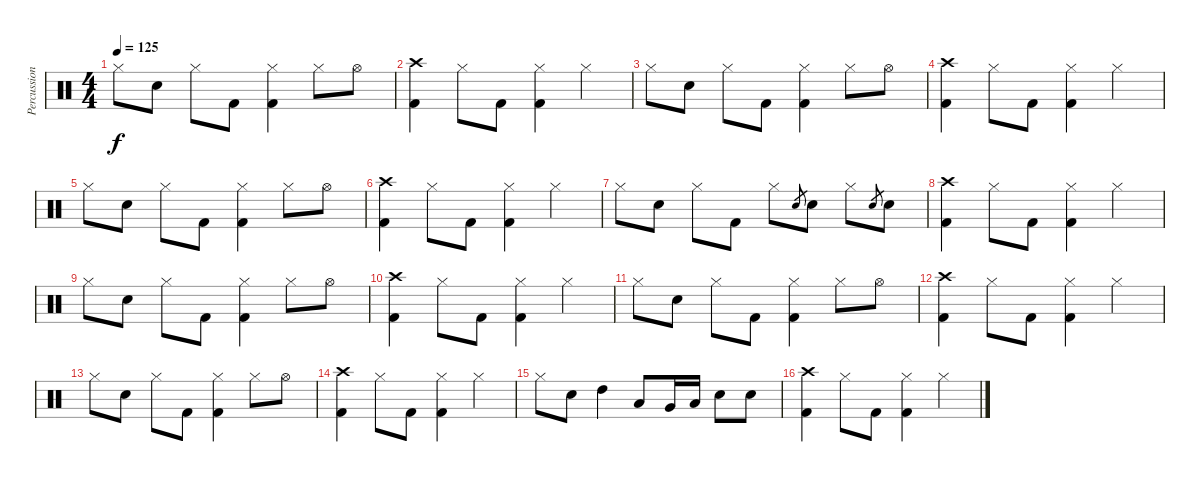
\track ("Percussion" "Percussion") {instrument percussion}
\staff {score}
\articulation defaults
\ts (4 4)
\tempo 125
\clef neutral
\ks c "Hi-Hat (closed)".8{dy f} "Snare (hit) 2".8 "Hi-Hat (closed)".8 "Kick (hit) 2".8
("Hi-Hat (closed)" "Kick (hit) 2").4 "Hi-Hat (closed)".8 "Hi-Hat (open)".8 |
("Crash high (hit)" "Kick (hit) 2").4 "Hi-Hat (closed)".8 "Kick (hit) 2".8 ("Hi-Hat (closed)" "Kick (hit) 2").4 "Hi-Hat (closed)".4 |
"Hi-Hat (closed)".8 "Snare (hit) 2".8 "Hi-Hat (closed)".8 "Kick (hit) 2".8 ("Hi-Hat (closed)" "Kick (hit) 2").4 "Hi-Hat (closed)".8 "Hi-Hat (open)".8 |
("Crash high (hit)" "Kick (hit) 2").4 "Hi-Hat (closed)".8 "Kick (hit) 2".8 ("Hi-Hat (closed)" "Kick (hit) 2").4 "Hi-Hat (closed)".4 |
"Hi-Hat (closed)".8 "Snare (hit) 2".8 "Hi-Hat (closed)".8 "Kick (hit) 2".8 ("Hi-Hat (closed)" "Kick (hit) 2").4 "Hi-Hat (closed)".8 "Hi-Hat (open)".8 |
("Crash high (hit)" "Kick (hit) 2").4 "Hi-Hat (closed)".8 "Kick (hit) 2".8 ("Hi-Hat (closed)" "Kick (hit) 2").4 "Hi-Hat (closed)".4 |
"Hi-Hat (closed)".8 "Snare (hit) 2".8 "Hi-Hat (closed)".8 "Kick (hit) 2".8 "Hi-Hat (closed)".8 "Snare (hit) 2".8{gr} "Snare (hit) 2".8 "Hi-Hat (closed)".8 "Snare (hit) 2".8{gr} "Snare (hit) 2".8 |
("Crash high (hit)" "Kick (hit) 2").4 "Hi-Hat (closed)".8 "Kick (hit) 2".8 ("Hi-Hat (closed)" "Kick (hit) 2").4 "Hi-Hat (closed)".4 |
"Hi-Hat (closed)".8 "Snare (hit) 2".8 "Hi-Hat (closed)".8 "Kick (hit) 2".8 ("Hi-Hat (closed)" "Kick (hit) 2").4 "Hi-Hat (closed)".8 "Hi-Hat (open)".8 |
("Crash high (hit)" "Kick (hit) 2").4 "Hi-Hat (closed)".8 "Kick (hit) 2".8 ("Hi-Hat (closed)" "Kick (hit) 2").4 "Hi-Hat (closed)".4 |
"Hi-Hat (closed)".8 "Snare (hit) 2".8 "Hi-Hat (closed)".8 "Kick (hit) 2".8 ("Hi-Hat (closed)" "Kick (hit) 2").4 "Hi-Hat (closed)".8 "Hi-Hat (open)".8 |
("Crash high (hit)" "Kick (hit) 2").4 "Hi-Hat (closed)".8 "Kick (hit) 2".8 ("Hi-Hat (closed)" "Kick (hit) 2").4 "Hi-Hat (closed)".4 |
"Hi-Hat (closed)".8 "Snare (hit) 2".8 "Hi-Hat (closed)".8 "Kick (hit) 2".8 ("Hi-Hat (closed)" "Kick (hit) 2").4 "Hi-Hat (closed)".8 "Hi-Hat (open)".8 |
("Crash high (hit)" "Kick (hit) 2").4 "Hi-Hat (closed)".8 "Kick (hit) 2".8 ("Hi-Hat (closed)" "Kick (hit) 2").4 "Hi-Hat (closed)".4 |
"Hi-Hat (closed)".8 "Snare (hit) 2".8 "High Tom (hit)".4 "Low Tom (hit)".8 "Very Low Tom (hit)".16 "Low Floor Tom (hit)".16 "Electric Snare (hit)".8 "Electric Snare (hit)".8 |
("Crash high (hit)" "Kick (hit) 2").4 "Hi-Hat (closed)".8 "Kick (hit) 2".8 ("Hi-Hat (closed)" "Kick (hit) 2").4 "Hi-Hat (closed)".4
